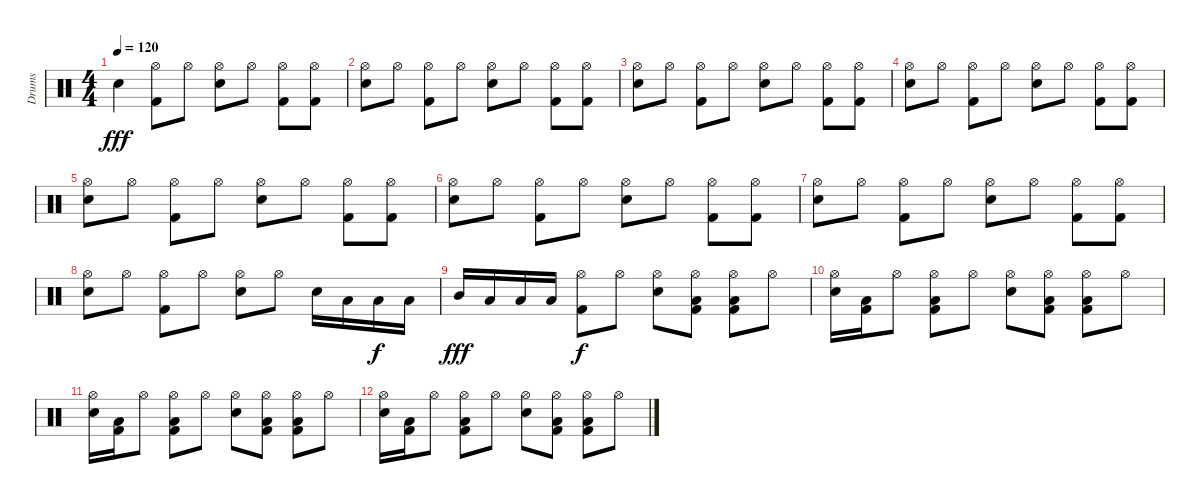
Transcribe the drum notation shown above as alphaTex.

\track ("Drums" "Drums") {instrument percussion}
\staff {score}
\articulation defaults
\ts (4 4)
\tempo 120
\clef neutral
\ks c "Electric Snare (hit)".4{dy fff}
("Hi-Hat (open)" "Kick (hit) 2").8 "Hi-Hat (open)".8 ("Hi-Hat (open)" "Electric Snare (hit)").8 "Hi-Hat (open)".8 ("Hi-Hat (open)" "Kick (hit) 2").8 ("Hi-Hat (open)" "Kick (hit) 2").8 |
("Hi-Hat (open)" "Electric Snare (hit)").8 "Hi-Hat (open)".8 ("Hi-Hat (open)" "Kick (hit) 2").8 "Hi-Hat (open)".8 ("Hi-Hat (open)" "Electric Snare (hit)").8 "Hi-Hat (open)".8 ("Hi-Hat (open)" "Kick (hit) 2").8 ("Hi-Hat (open)" "Kick (hit) 2").8 |
("Hi-Hat (open)" "Electric Snare (hit)").8 "Hi-Hat (open)".8 ("Hi-Hat (open)" "Kick (hit) 2").8 "Hi-Hat (open)".8 ("Hi-Hat (open)" "Electric Snare (hit)").8 "Hi-Hat (open)".8 ("Hi-Hat (open)" "Kick (hit) 2").8 ("Hi-Hat (open)" "Kick (hit) 2").8 |
("Hi-Hat (open)" "Electric Snare (hit)").8 "Hi-Hat (open)".8 ("Hi-Hat (open)" "Kick (hit) 2").8 "Hi-Hat (open)".8 ("Hi-Hat (open)" "Electric Snare (hit)").8 "Hi-Hat (open)".8 ("Hi-Hat (open)" "Kick (hit) 2").8 ("Hi-Hat (open)" "Kick (hit) 2").8 |
("Hi-Hat (open)" "Electric Snare (hit)").8 "Hi-Hat (open)".8 ("Hi-Hat (open)" "Kick (hit) 2").8 "Hi-Hat (open)".8 ("Hi-Hat (open)" "Electric Snare (hit)").8 "Hi-Hat (open)".8 ("Hi-Hat (open)" "Kick (hit) 2").8 ("Hi-Hat (open)" "Kick (hit) 2").8 |
("Hi-Hat (open)" "Electric Snare (hit)").8 "Hi-Hat (open)".8 ("Hi-Hat (open)" "Kick (hit) 2").8 "Hi-Hat (open)".8 ("Hi-Hat (open)" "Electric Snare (hit)").8 "Hi-Hat (open)".8 ("Hi-Hat (open)" "Kick (hit) 2").8 ("Hi-Hat (open)" "Kick (hit) 2").8 |
("Hi-Hat (open)" "Electric Snare (hit)").8 "Hi-Hat (open)".8 ("Hi-Hat (open)" "Kick (hit) 2").8 "Hi-Hat (open)".8 ("Hi-Hat (open)" "Electric Snare (hit)").8 "Hi-Hat (open)".8 ("Hi-Hat (open)" "Kick (hit) 2").8 ("Hi-Hat (open)" "Kick (hit) 2").8 |
("Hi-Hat (open)" "Electric Snare (hit)").8 "Hi-Hat (open)".8 ("Hi-Hat (open)" "Kick (hit) 2").8 "Hi-Hat (open)".8 ("Hi-Hat (open)" "Electric Snare (hit)").8 "Hi-Hat (open)".8 "Electric Snare (hit)".16 "Low Tom (hit)".16 "Low Tom (hit)".16{dy f} "Low Tom (hit)".16 |
"Mid Tom (hit)".16{dy fff} "Low Tom (hit)".16 "Low Tom (hit)".16 "Low Tom (hit)".16 ("Hi-Hat (open)" "Kick (hit) 2").8{dy f} "Hi-Hat (open)".8 ("Hi-Hat (open)" "Electric Snare (hit)").8 ("Hi-Hat (open)" "Low Tom (hit)" "Kick (hit) 2").8 ("Hi-Hat (open)" "Low Tom (hit)" "Kick (hit) 2").8 "Hi-Hat (open)".8 |
("Hi-Hat (open)" "Electric Snare (hit)").16 ("Low Tom (hit)" "Kick (hit) 2").16 "Hi-Hat (open)".8 ("Hi-Hat (open)" "Low Tom (hit)" "Kick (hit) 2").8 "Hi-Hat (open)".8 ("Hi-Hat (open)" "Electric Snare (hit)").8 ("Hi-Hat (open)" "Low Tom (hit)" "Kick (hit) 2").8 ("Hi-Hat (open)" "Low Tom (hit)" "Kick (hit) 2").8 "Hi-Hat (open)".8 |
("Hi-Hat (open)" "Electric Snare (hit)").16 ("Low Tom (hit)" "Kick (hit) 2").16 "Hi-Hat (open)".8 ("Hi-Hat (open)" "Low Tom (hit)" "Kick (hit) 2").8 "Hi-Hat (open)".8 ("Hi-Hat (open)" "Electric Snare (hit)").8 ("Hi-Hat (open)" "Low Tom (hit)" "Kick (hit) 2").8 ("Hi-Hat (open)" "Low Tom (hit)" "Kick (hit) 2").8 "Hi-Hat (open)".8 |
("Hi-Hat (open)" "Electric Snare (hit)").16 ("Low Tom (hit)" "Kick (hit) 2").16 "Hi-Hat (open)".8 ("Hi-Hat (open)" "Low Tom (hit)" "Kick (hit) 2").8 "Hi-Hat (open)".8 ("Hi-Hat (open)" "Electric Snare (hit)").8 ("Hi-Hat (open)" "Low Tom (hit)" "Kick (hit) 2").8 ("Hi-Hat (open)" "Low Tom (hit)" "Kick (hit) 2").8 "Hi-Hat (open)".8
